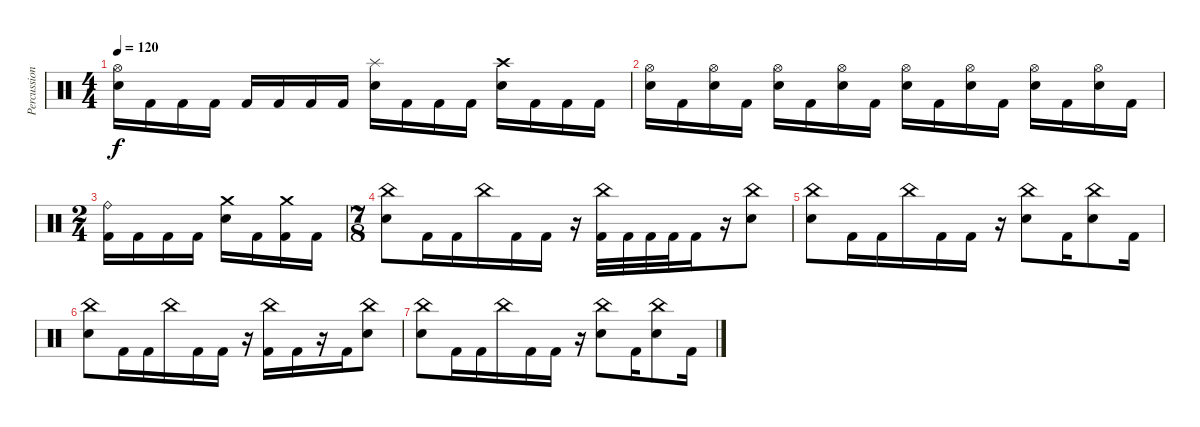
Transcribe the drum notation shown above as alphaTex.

\track ("Percussion" "Percussion") {instrument percussion}
\staff {score}
\articulation defaults
\ts (4 4)
\tempo 120
\clef neutral
\ks c
("Hi-Hat (open)" "Electric Snare (hit)").16{dy f} "Kick (hit) 2".16 "Kick (hit) 2".16 "Kick (hit) 2".16 "Kick (hit) 2".16 "Kick (hit) 2".16 "Kick (hit) 2".16 "Kick (hit) 2".16 ("Splash (hit)" "Electric Snare (hit)").16 "Kick (hit) 2".16 "Kick (hit) 2".16 "Kick (hit) 2".16 ("Crash high (hit)" "Electric Snare (hit)").16 "Kick (hit) 2".16 "Kick (hit) 2".16 "Kick (hit) 2".16 |
("Hi-Hat (open)" "Electric Snare (hit)").16 "Kick (hit) 2".16 ("Hi-Hat (open)" "Electric Snare (hit)").16 "Kick (hit) 2".16 ("Hi-Hat (open)" "Electric Snare (hit)").16 "Kick (hit) 2".16 ("Hi-Hat (open)" "Electric Snare (hit)").16 "Kick (hit) 2".16 ("Hi-Hat (open)" "Electric Snare (hit)").16 "Kick (hit) 2".16 ("Hi-Hat (open)" "Electric Snare (hit)").16 "Kick (hit) 2".16 ("Hi-Hat (open)" "Electric Snare (hit)").16 "Kick (hit) 2".16 ("Hi-Hat (open)" "Electric Snare (hit)").16 "Kick (hit) 2".16 |
\ts (2 4)
("Ride (bell)" "Kick (hit) 2").16 "Kick (hit) 2".16 "Kick (hit) 2".16 "Kick (hit) 2".16 ("Crash medium (hit)" "Electric Snare (hit)").16 "Kick (hit) 2".16 ("Crash medium (hit)" "Kick (hit) 2").16 "Kick (hit) 2".16 |
\ts (7 8)
("China (hit)" "Electric Snare (hit)").8 "Kick (hit) 2".16 "Kick (hit) 2".16 "China (hit)".16 "Kick (hit) 2".16 "Kick (hit) 2".16 r.16 ("China (hit)" "Kick (hit) 2").32 "Kick (hit) 2".32 "Kick (hit) 2".32 "Kick (hit) 2".32 "Kick (hit) 2".16 r.16 ("China (hit)" "Electric Snare (hit)").8 |
("China (hit)" "Electric Snare (hit)").8 "Kick (hit) 2".16 "Kick (hit) 2".16 "China (hit)".16 "Kick (hit) 2".16 "Kick (hit) 2".16 r.16 ("China (hit)" "Electric Snare (hit)").8 "Kick (hit) 2".16 ("China (hit)" "Electric Snare (hit)").8 "Kick (hit) 2".16 |
("China (hit)" "Electric Snare (hit)").8 "Kick (hit) 2".16 "Kick (hit) 2".16 "China (hit)".16 "Kick (hit) 2".16 "Kick (hit) 2".16 r.16 ("China (hit)" "Kick (hit) 2").16 "Kick (hit) 2".16 r.16 "Kick (hit) 2".16 ("China (hit)" "Electric Snare (hit)").8 |
("China (hit)" "Electric Snare (hit)").8 "Kick (hit) 2".16 "Kick (hit) 2".16 "China (hit)".16 "Kick (hit) 2".16 "Kick (hit) 2".16 r.16 ("China (hit)" "Electric Snare (hit)").8 "Kick (hit) 2".16 ("China (hit)" "Electric Snare (hit)").8 "Kick (hit) 2".16
